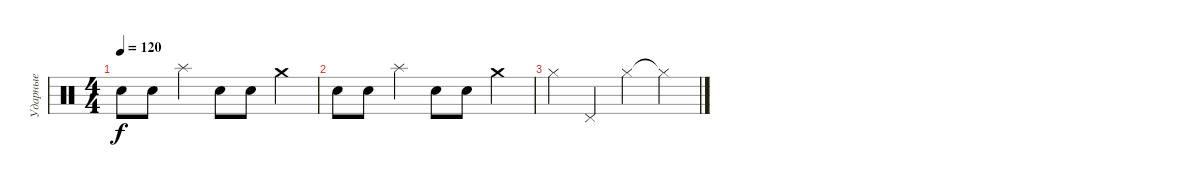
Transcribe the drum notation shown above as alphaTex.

\track ("Ударные" "Ударные") {instrument percussion}
\staff {score}
\articulation defaults
\ts (4 4)
\tempo 120
\clef neutral
\ks c "Snare (hit) 2".8{dy f} "Snare (hit) 2".8 "Splash (hit)".4 "Snare (hit) 2".8 "Snare (hit) 2".8 "Crash medium (hit)".4
|
"Snare (hit) 2".8 "Snare (hit) 2".8 "Splash (hit)".4 "Snare (hit) 2".8 "Snare (hit) 2".8 "Crash medium (hit)".4 |
"Hi-Hat (closed)".4 "Pedal Hi-Hat (hit)".4 "Hi-Hat (closed)".4 "Hi-Hat (closed)"{t}.4
